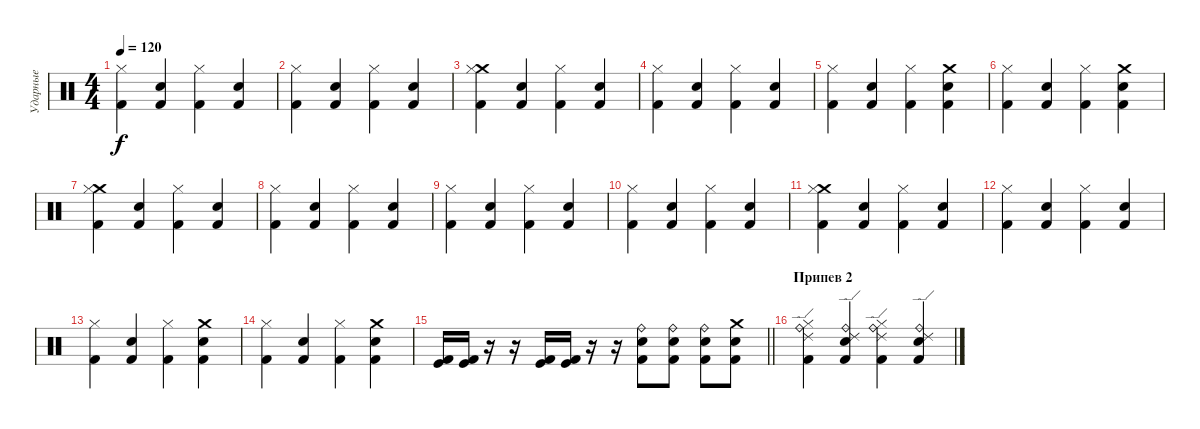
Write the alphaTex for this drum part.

\track ("Ударные" "Ударные") {instrument percussion}
\staff {score}
\articulation defaults
\ts (4 4)
\tempo 120
\clef neutral
\ks c
("Hi-Hat (closed)" "Kick (hit) 2").4{dy f} ("Snare (hit) 2" "Kick (hit) 2").4 ("Hi-Hat (closed)" "Kick (hit) 2").4 ("Snare (hit) 2" "Kick (hit) 2").4 |
("Hi-Hat (closed)" "Kick (hit) 2").4 ("Snare (hit) 2" "Kick (hit) 2").4 ("Hi-Hat (closed)" "Kick (hit) 2").4 ("Snare (hit) 2" "Kick (hit) 2").4 |
("Crash medium (hit)" "Hi-Hat (closed)" "Kick (hit) 2").4 ("Snare (hit) 2" "Kick (hit) 2").4 ("Hi-Hat (closed)" "Kick (hit) 2").4 ("Snare (hit) 2" "Kick (hit) 2").4 |
("Hi-Hat (closed)" "Kick (hit) 2").4 ("Snare (hit) 2" "Kick (hit) 2").4 ("Hi-Hat (closed)" "Kick (hit) 2").4 ("Snare (hit) 2" "Kick (hit) 2").4 |
("Hi-Hat (closed)" "Kick (hit) 2").4 ("Snare (hit) 2" "Kick (hit) 2").4 ("Hi-Hat (closed)" "Kick (hit) 2").4 ("Crash medium (hit)" "Snare (hit) 2" "Kick (hit) 2").4 |
("Hi-Hat (closed)" "Kick (hit) 2").4 ("Snare (hit) 2" "Kick (hit) 2").4 ("Hi-Hat (closed)" "Kick (hit) 2").4 ("Crash medium (hit)" "Snare (hit) 2" "Kick (hit) 2").4 |
("Crash medium (hit)" "Hi-Hat (closed)" "Kick (hit) 2").4 ("Snare (hit) 2" "Kick (hit) 2").4 ("Hi-Hat (closed)" "Kick (hit) 2").4 ("Snare (hit) 2" "Kick (hit) 2").4 |
("Hi-Hat (closed)" "Kick (hit) 2").4 ("Snare (hit) 2" "Kick (hit) 2").4 ("Hi-Hat (closed)" "Kick (hit) 2").4 ("Snare (hit) 2" "Kick (hit) 2").4 |
("Hi-Hat (closed)" "Kick (hit) 2").4 ("Snare (hit) 2" "Kick (hit) 2").4 ("Hi-Hat (closed)" "Kick (hit) 2").4 ("Snare (hit) 2" "Kick (hit) 2").4 |
("Hi-Hat (closed)" "Kick (hit) 2").4 ("Snare (hit) 2" "Kick (hit) 2").4 ("Hi-Hat (closed)" "Kick (hit) 2").4 ("Snare (hit) 2" "Kick (hit) 2").4 |
("Crash medium (hit)" "Hi-Hat (closed)" "Kick (hit) 2").4 ("Snare (hit) 2" "Kick (hit) 2").4 ("Hi-Hat (closed)" "Kick (hit) 2").4 ("Snare (hit) 2" "Kick (hit) 2").4 |
("Hi-Hat (closed)" "Kick (hit) 2").4 ("Snare (hit) 2" "Kick (hit) 2").4 ("Hi-Hat (closed)" "Kick (hit) 2").4 ("Snare (hit) 2" "Kick (hit) 2").4 |
("Hi-Hat (closed)" "Kick (hit) 2").4 ("Snare (hit) 2" "Kick (hit) 2").4 ("Hi-Hat (closed)" "Kick (hit) 2").4 ("Crash medium (hit)" "Snare (hit) 2" "Kick (hit) 2").4 |
("Hi-Hat (closed)" "Kick (hit) 2").4 ("Snare (hit) 2" "Kick (hit) 2").4 ("Hi-Hat (closed)" "Kick (hit) 2").4 ("Crash medium (hit)" "Snare (hit) 2" "Kick (hit) 2").4 |
\barLineRight lightlight
("Kick (hit)" "Kick (hit) 2").16 ("Kick (hit)" "Kick (hit) 2").16 r.16 r.16 ("Kick (hit)" "Kick (hit) 2").16 ("Kick (hit)" "Kick (hit) 2").16 r.16 r.16 ("Ride (bell)" "Snare (hit) 2" "Kick (hit) 2").8 ("Ride (bell)" "Snare (hit) 2" "Kick (hit) 2").8 ("Ride (bell)" "Snare (hit) 2" "Kick (hit) 2").8 ("Crash medium (hit)" "Snare (hit) 2" "Kick (hit) 2").8 |
\section ("" "Припев 2")
("Ride (bell)" "Ride (edge) 2" "Hi-Hat (closed)" "Kick (hit) 2").4 ("Ride (bell)" "Ride (edge) 2" "Snare (hit) 2" "Kick (hit) 2").4 ("Ride (bell)" "Ride (edge) 2" "Hi-Hat (closed)" "Kick (hit) 2").4 ("Ride (bell)" "Ride (edge) 2" "Snare (hit) 2" "Kick (hit) 2").4
